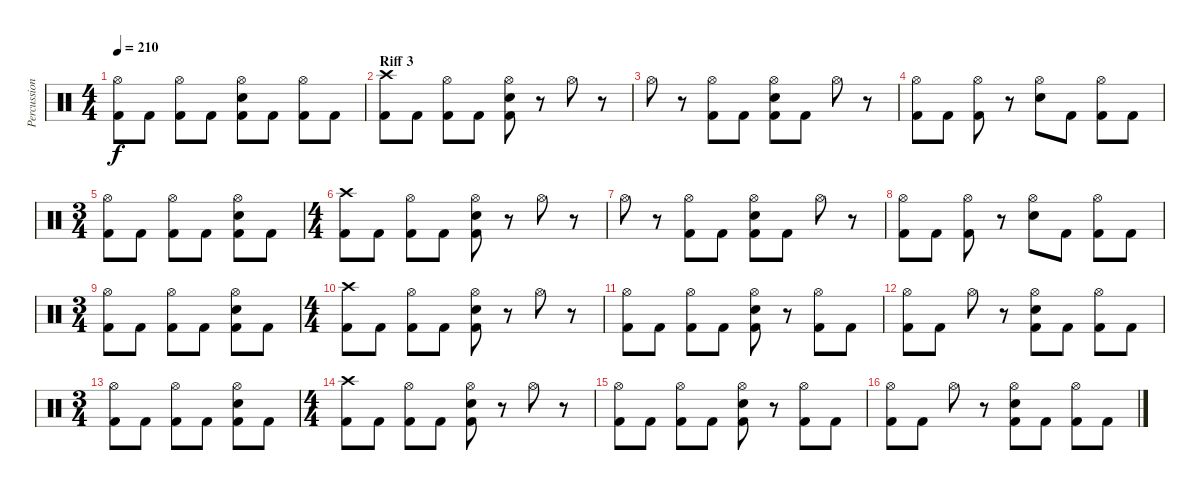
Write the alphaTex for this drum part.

\track ("Percussion" "Percussion") {instrument percussion}
\staff {score}
\articulation defaults
\ts (4 4)
\tempo 210
\clef neutral
\ks c
("Hi-Hat (open)" "Kick (hit) 2").8{dy f} "Kick (hit) 2".8 ("Hi-Hat (open)" "Kick (hit) 2").8 "Kick (hit) 2".8 ("Hi-Hat (open)" "Electric Snare (hit)" "Kick (hit) 2").8 "Kick (hit) 2".8 ("Hi-Hat (open)" "Kick (hit) 2").8 "Kick (hit) 2".8 |
\section ("" "Riff 3")
("Crash high (hit)" "Kick (hit) 2").8 "Kick (hit) 2".8 ("Hi-Hat (open)" "Kick (hit) 2").8 "Kick (hit) 2".8 ("Hi-Hat (open)" "Electric Snare (hit)" "Kick (hit) 2").8 r.8 "Hi-Hat (open)".8 r.8 |
"Hi-Hat (open)".8 r.8 ("Hi-Hat (open)" "Kick (hit) 2").8 "Kick (hit) 2".8 ("Hi-Hat (open)" "Electric Snare (hit)" "Kick (hit) 2").8 "Kick (hit) 2".8 "Hi-Hat (open)".8 r.8 |
("Hi-Hat (open)" "Kick (hit) 2").8 "Kick (hit) 2".8 ("Hi-Hat (open)" "Kick (hit) 2").8 r.8 ("Hi-Hat (open)" "Electric Snare (hit)").8 "Kick (hit) 2".8 ("Hi-Hat (open)" "Kick (hit) 2").8 "Kick (hit) 2".8 |
\ts (3 4)
("Hi-Hat (open)" "Kick (hit) 2").8 "Kick (hit) 2".8 ("Hi-Hat (open)" "Kick (hit) 2").8 "Kick (hit) 2".8 ("Hi-Hat (open)" "Electric Snare (hit)" "Kick (hit) 2").8 "Kick (hit) 2".8 |
\ts (4 4)
("Crash high (hit)" "Kick (hit) 2").8 "Kick (hit) 2".8 ("Hi-Hat (open)" "Kick (hit) 2").8 "Kick (hit) 2".8 ("Hi-Hat (open)" "Electric Snare (hit)" "Kick (hit) 2").8 r.8 "Hi-Hat (open)".8 r.8 |
"Hi-Hat (open)".8 r.8 ("Hi-Hat (open)" "Kick (hit) 2").8 "Kick (hit) 2".8 ("Hi-Hat (open)" "Electric Snare (hit)" "Kick (hit) 2").8 "Kick (hit) 2".8 "Hi-Hat (open)".8 r.8 |
("Hi-Hat (open)" "Kick (hit) 2").8 "Kick (hit) 2".8 ("Hi-Hat (open)" "Kick (hit) 2").8 r.8 ("Hi-Hat (open)" "Electric Snare (hit)").8 "Kick (hit) 2".8 ("Hi-Hat (open)" "Kick (hit) 2").8 "Kick (hit) 2".8 |
\ts (3 4)
("Hi-Hat (open)" "Kick (hit) 2").8 "Kick (hit) 2".8 ("Hi-Hat (open)" "Kick (hit) 2").8 "Kick (hit) 2".8 ("Hi-Hat (open)" "Electric Snare (hit)" "Kick (hit) 2").8 "Kick (hit) 2".8 |
\ts (4 4)
("Crash high (hit)" "Kick (hit) 2").8 "Kick (hit) 2".8 ("Hi-Hat (open)" "Kick (hit) 2").8 "Kick (hit) 2".8 ("Hi-Hat (open)" "Electric Snare (hit)" "Kick (hit) 2").8 r.8 "Hi-Hat (open)".8 r.8 |
("Hi-Hat (open)" "Kick (hit) 2").8 "Kick (hit) 2".8 ("Hi-Hat (open)" "Kick (hit) 2").8 "Kick (hit) 2".8 ("Hi-Hat (open)" "Electric Snare (hit)" "Kick (hit) 2").8 r.8 ("Hi-Hat (open)" "Kick (hit) 2").8 "Kick (hit) 2".8 |
("Hi-Hat (open)" "Kick (hit) 2").8 "Kick (hit) 2".8 "Hi-Hat (open)".8 r.8 ("Hi-Hat (open)" "Electric Snare (hit)" "Kick (hit) 2").8 "Kick (hit) 2".8 ("Hi-Hat (open)" "Kick (hit) 2").8 "Kick (hit) 2".8 |
\ts (3 4)
("Hi-Hat (open)" "Kick (hit) 2").8 "Kick (hit) 2".8 ("Hi-Hat (open)" "Kick (hit) 2").8 "Kick (hit) 2".8 ("Hi-Hat (open)" "Electric Snare (hit)" "Kick (hit) 2").8 "Kick (hit) 2".8 |
\ts (4 4)
("Crash high (hit)" "Kick (hit) 2").8 "Kick (hit) 2".8 ("Hi-Hat (open)" "Kick (hit) 2").8 "Kick (hit) 2".8 ("Hi-Hat (open)" "Electric Snare (hit)" "Kick (hit) 2").8 r.8 "Hi-Hat (open)".8 r.8 |
("Hi-Hat (open)" "Kick (hit) 2").8 "Kick (hit) 2".8 ("Hi-Hat (open)" "Kick (hit) 2").8 "Kick (hit) 2".8 ("Hi-Hat (open)" "Electric Snare (hit)" "Kick (hit) 2").8 r.8 ("Hi-Hat (open)" "Kick (hit) 2").8 "Kick (hit) 2".8 |
("Hi-Hat (open)" "Kick (hit) 2").8 "Kick (hit) 2".8 "Hi-Hat (open)".8 r.8 ("Hi-Hat (open)" "Electric Snare (hit)" "Kick (hit) 2").8 "Kick (hit) 2".8 ("Hi-Hat (open)" "Kick (hit) 2").8 "Kick (hit) 2".8
